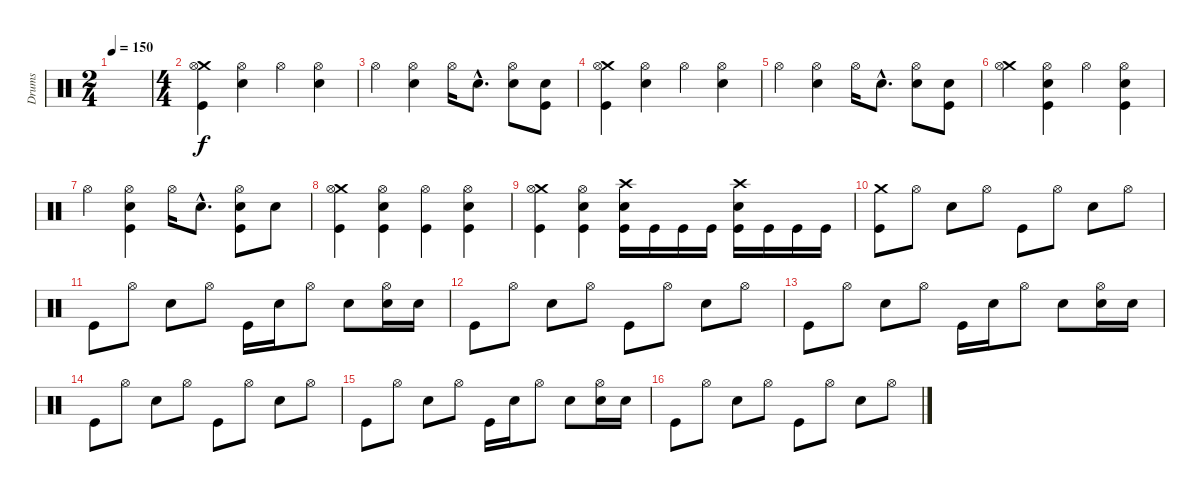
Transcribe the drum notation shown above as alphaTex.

\track ("Drums" "Drums") {instrument percussion}
\staff {score}
\articulation defaults
\ts (2 4)
\tempo 150
\clef neutral
\ks c
|
\ts (4 4)
("Crash medium (hit)" "Hi-Hat (open)" "Kick (hit)").4 ("Electric Snare (hit)" "Hi-Hat (open)").4 "Hi-Hat (open)".4 ("Electric Snare (hit)" "Hi-Hat (open)").4 |
"Hi-Hat (open)".4 ("Electric Snare (hit)" "Hi-Hat (open)").4 "Hi-Hat (open)".16 "Electric Snare (hit)"{hac}.8{d} ("Electric Snare (hit)" "Hi-Hat (open)").8 ("Electric Snare (hit)" "Kick (hit)").8 |
("Crash medium (hit)" "Hi-Hat (open)" "Kick (hit)").4 ("Electric Snare (hit)" "Hi-Hat (open)").4 "Hi-Hat (open)".4 ("Electric Snare (hit)" "Hi-Hat (open)").4 |
"Hi-Hat (open)".4 ("Electric Snare (hit)" "Hi-Hat (open)").4 "Hi-Hat (open)".16 "Electric Snare (hit)"{hac}.8{d} ("Electric Snare (hit)" "Hi-Hat (open)").8 ("Electric Snare (hit)" "Kick (hit)").8 |
("Crash medium (hit)" "Hi-Hat (open)").4 ("Electric Snare (hit)" "Hi-Hat (open)" "Kick (hit)").4 "Hi-Hat (open)".4 ("Electric Snare (hit)" "Hi-Hat (open)" "Kick (hit)").4 |
"Hi-Hat (open)".4 ("Electric Snare (hit)" "Hi-Hat (open)" "Kick (hit)").4 "Hi-Hat (open)".16 "Electric Snare (hit)"{hac}.8{d} ("Electric Snare (hit)" "Hi-Hat (open)" "Kick (hit)").8 "Electric Snare (hit)".8 |
("Crash medium (hit)" "Hi-Hat (open)" "Kick (hit)").4 ("Electric Snare (hit)" "Hi-Hat (open)" "Kick (hit)").4 ("Hi-Hat (open)" "Kick (hit)").4 ("Electric Snare (hit)" "Hi-Hat (open)" "Kick (hit)").4 |
("Crash medium (hit)" "Hi-Hat (open)" "Kick (hit)").4 ("Electric Snare (hit)" "Hi-Hat (open)" "Kick (hit)").4 ("Crash high (hit)" "Electric Snare (hit)" "Kick (hit)").16 "Kick (hit)".16 "Kick (hit)".16 "Kick (hit)".16 ("Crash high (hit)" "Electric Snare (hit)" "Kick (hit)").16 "Kick (hit)".16 "Kick (hit)".16 "Kick (hit)".16 |
("Crash medium (hit)" "Kick (hit)").8 "Hi-Hat (open)".8 "Electric Snare (hit)".8 "Hi-Hat (open)".8 "Kick (hit)".8 "Hi-Hat (open)".8 "Electric Snare (hit)".8 "Hi-Hat (open)".8 |
"Kick (hit)".8 "Hi-Hat (open)".8 "Electric Snare (hit)".8 "Hi-Hat (open)".8 "Kick (hit)".16 "Electric Snare (hit)".16 "Hi-Hat (open)".8 "Electric Snare (hit)".8 ("Electric Snare (hit)" "Hi-Hat (open)").16 "Electric Snare (hit)".16 |
"Kick (hit)".8 "Hi-Hat (open)".8 "Electric Snare (hit)".8 "Hi-Hat (open)".8 "Kick (hit)".8 "Hi-Hat (open)".8 "Electric Snare (hit)".8 "Hi-Hat (open)".8 |
"Kick (hit)".8 "Hi-Hat (open)".8 "Electric Snare (hit)".8 "Hi-Hat (open)".8 "Kick (hit)".16 "Electric Snare (hit)".16 "Hi-Hat (open)".8 "Electric Snare (hit)".8 ("Electric Snare (hit)" "Hi-Hat (open)").16 "Electric Snare (hit)".16 |
"Kick (hit)".8 "Hi-Hat (open)".8 "Electric Snare (hit)".8 "Hi-Hat (open)".8 "Kick (hit)".8 "Hi-Hat (open)".8 "Electric Snare (hit)".8 "Hi-Hat (open)".8 |
"Kick (hit)".8 "Hi-Hat (open)".8 "Electric Snare (hit)".8 "Hi-Hat (open)".8 "Kick (hit)".16 "Electric Snare (hit)".16 "Hi-Hat (open)".8 "Electric Snare (hit)".8 ("Electric Snare (hit)" "Hi-Hat (open)").16 "Electric Snare (hit)".16 |
"Kick (hit)".8 "Hi-Hat (open)".8 "Electric Snare (hit)".8 "Hi-Hat (open)".8 "Kick (hit)".8 "Hi-Hat (open)".8 "Electric Snare (hit)".8 "Hi-Hat (open)".8
